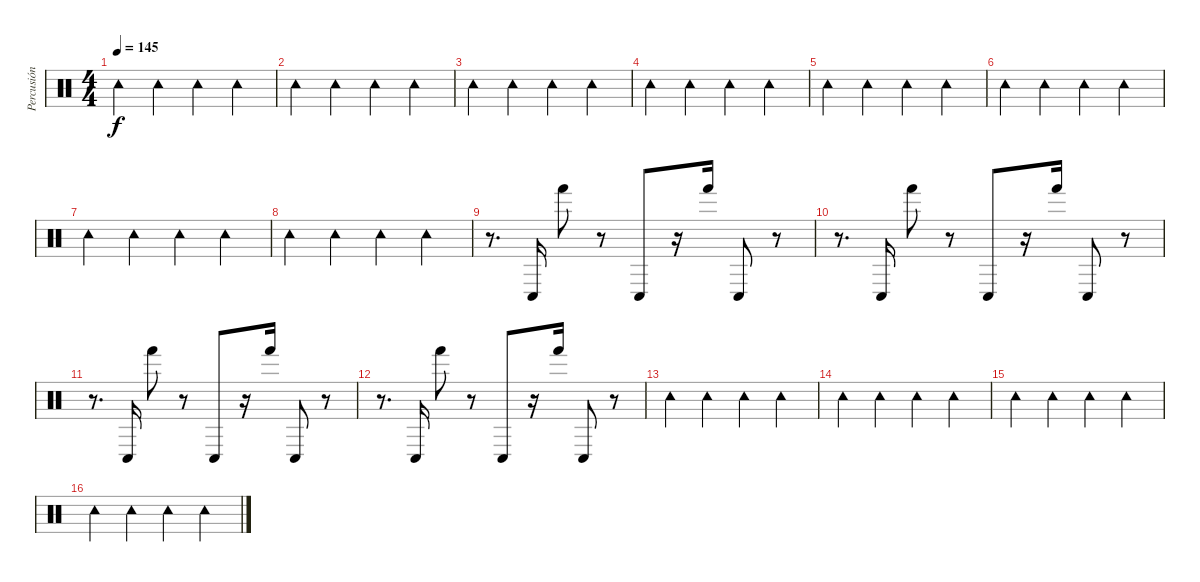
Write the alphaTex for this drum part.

\track ("Percusión" "Percusión") {instrument percussion}
\staff {score}
\articulation defaults
\ts (4 4)
\tempo 145
\clef neutral
\ks c "Tambourine (hit)".4{dy f} "Tambourine (hit)".4 "Tambourine (hit)".4 "Tambourine (hit)".4
|
"Tambourine (hit)".4 "Tambourine (hit)".4 "Tambourine (hit)".4 "Tambourine (hit)".4 |
"Tambourine (hit)".4 "Tambourine (hit)".4 "Tambourine (hit)".4 "Tambourine (hit)".4 |
"Tambourine (hit)".4 "Tambourine (hit)".4 "Tambourine (hit)".4 "Tambourine (hit)".4 |
"Tambourine (hit)".4 "Tambourine (hit)".4 "Tambourine (hit)".4 "Tambourine (hit)".4 |
"Tambourine (hit)".4 "Tambourine (hit)".4 "Tambourine (hit)".4 "Tambourine (hit)".4 |
"Tambourine (hit)".4 "Tambourine (hit)".4 "Tambourine (hit)".4 "Tambourine (hit)".4 |
"Tambourine (hit)".4 "Tambourine (hit)".4 "Tambourine (hit)".4 "Tambourine (hit)".4 |
r.8{d} "Conga low (hit)".16 "Hand (hit)".8 r.8 "Conga low (hit)".8 r.16 "Hand (hit)".16 "Conga low (hit)".8 r.8 |
r.8{d} "Conga low (hit)".16 "Hand (hit)".8 r.8 "Conga low (hit)".8 r.16 "Hand (hit)".16 "Conga low (hit)".8 r.8 |
r.8{d} "Conga low (hit)".16 "Hand (hit)".8 r.8 "Conga low (hit)".8 r.16 "Hand (hit)".16 "Conga low (hit)".8 r.8 |
r.8{d} "Conga low (hit)".16 "Hand (hit)".8 r.8 "Conga low (hit)".8 r.16 "Hand (hit)".16 "Conga low (hit)".8 r.8 |
"Tambourine (hit)".4 "Tambourine (hit)".4 "Tambourine (hit)".4 "Tambourine (hit)".4 |
"Tambourine (hit)".4 "Tambourine (hit)".4 "Tambourine (hit)".4 "Tambourine (hit)".4 |
"Tambourine (hit)".4 "Tambourine (hit)".4 "Tambourine (hit)".4 "Tambourine (hit)".4 |
"Tambourine (hit)".4 "Tambourine (hit)".4 "Tambourine (hit)".4 "Tambourine (hit)".4
